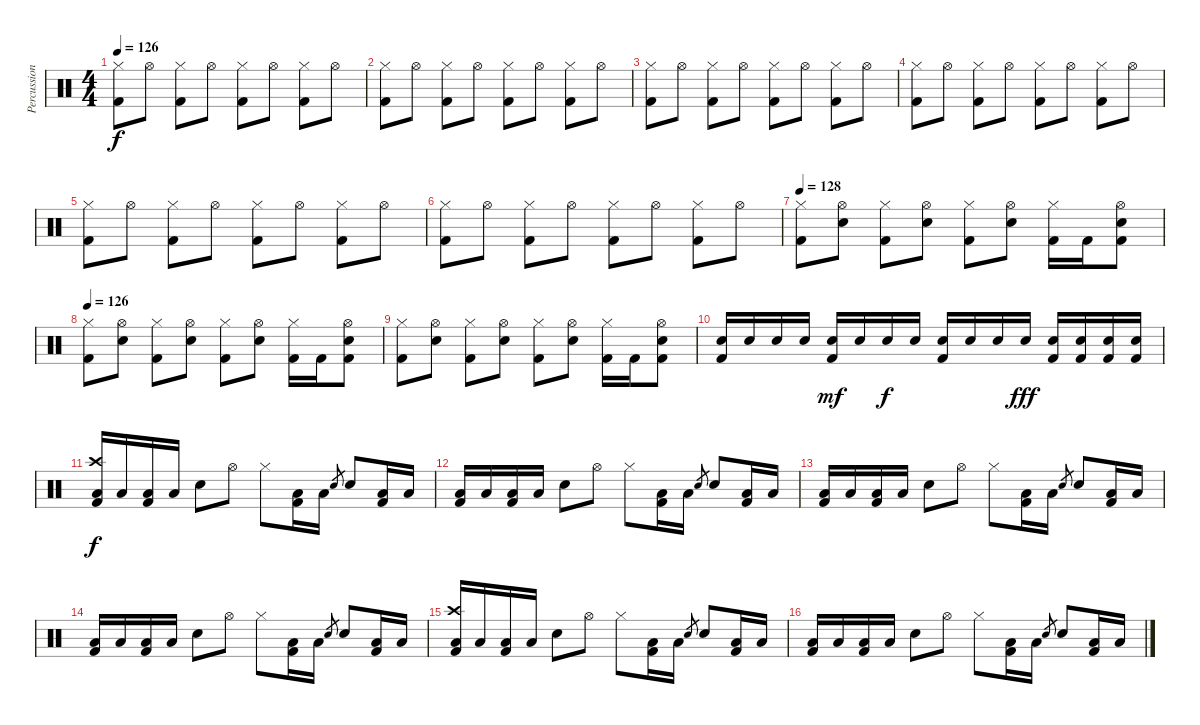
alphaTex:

\track ("Percussion" "Percussion") {instrument percussion}
\staff {score}
\articulation defaults
\ts (4 4)
\tempo 126
\clef neutral
\ks c
("Hi-Hat (closed)" "Kick (hit) 2").8{dy f} "Hi-Hat (open)".8 ("Hi-Hat (closed)" "Kick (hit) 2").8 "Hi-Hat (open)".8 ("Hi-Hat (closed)" "Kick (hit) 2").8 "Hi-Hat (open)".8 ("Hi-Hat (closed)" "Kick (hit) 2").8 "Hi-Hat (open)".8 |
("Hi-Hat (closed)" "Kick (hit) 2").8 "Hi-Hat (open)".8 ("Hi-Hat (closed)" "Kick (hit) 2").8 "Hi-Hat (open)".8 ("Hi-Hat (closed)" "Kick (hit) 2").8 "Hi-Hat (open)".8 ("Hi-Hat (closed)" "Kick (hit) 2").8 "Hi-Hat (open)".8 |
("Hi-Hat (closed)" "Kick (hit) 2").8 "Hi-Hat (open)".8 ("Hi-Hat (closed)" "Kick (hit) 2").8 "Hi-Hat (open)".8 ("Hi-Hat (closed)" "Kick (hit) 2").8 "Hi-Hat (open)".8 ("Hi-Hat (closed)" "Kick (hit) 2").8 "Hi-Hat (open)".8 |
("Hi-Hat (closed)" "Kick (hit) 2").8 "Hi-Hat (open)".8 ("Hi-Hat (closed)" "Kick (hit) 2").8 "Hi-Hat (open)".8 ("Hi-Hat (closed)" "Kick (hit) 2").8 "Hi-Hat (open)".8 ("Hi-Hat (closed)" "Kick (hit) 2").8 "Hi-Hat (open)".8 |
("Hi-Hat (closed)" "Kick (hit) 2").8 "Hi-Hat (open)".8 ("Hi-Hat (closed)" "Kick (hit) 2").8 "Hi-Hat (open)".8 ("Hi-Hat (closed)" "Kick (hit) 2").8 "Hi-Hat (open)".8 ("Hi-Hat (closed)" "Kick (hit) 2").8 "Hi-Hat (open)".8 |
("Hi-Hat (closed)" "Kick (hit) 2").8 "Hi-Hat (open)".8 ("Hi-Hat (closed)" "Kick (hit) 2").8 "Hi-Hat (open)".8 ("Hi-Hat (closed)" "Kick (hit) 2").8 "Hi-Hat (open)".8 ("Hi-Hat (closed)" "Kick (hit) 2").8 "Hi-Hat (open)".8 |
\tempo 128
("Hi-Hat (closed)" "Kick (hit) 2").8 ("Snare (hit) 2" "Hi-Hat (open)").8 ("Hi-Hat (closed)" "Kick (hit) 2").8 ("Snare (hit) 2" "Hi-Hat (open)").8 ("Hi-Hat (closed)" "Kick (hit) 2").8 ("Snare (hit) 2" "Hi-Hat (open)").8 ("Hi-Hat (closed)" "Kick (hit) 2").16 "Kick (hit) 2".16 ("Snare (hit) 2" "Hi-Hat (open)" "Kick (hit) 2").8 |
\tempo 126
("Hi-Hat (closed)" "Kick (hit) 2").8 ("Snare (hit) 2" "Hi-Hat (open)").8 ("Hi-Hat (closed)" "Kick (hit) 2").8 ("Snare (hit) 2" "Hi-Hat (open)").8 ("Hi-Hat (closed)" "Kick (hit) 2").8 ("Snare (hit) 2" "Hi-Hat (open)").8 ("Hi-Hat (closed)" "Kick (hit) 2").16 "Kick (hit) 2".16 ("Snare (hit) 2" "Hi-Hat (open)" "Kick (hit) 2").8 |
("Hi-Hat (closed)" "Kick (hit) 2").8 ("Snare (hit) 2" "Hi-Hat (open)").8 ("Hi-Hat (closed)" "Kick (hit) 2").8 ("Snare (hit) 2" "Hi-Hat (open)").8 ("Hi-Hat (closed)" "Kick (hit) 2").8 ("Snare (hit) 2" "Hi-Hat (open)").8 ("Hi-Hat (closed)" "Kick (hit) 2").16 "Kick (hit) 2".16 ("Snare (hit) 2" "Hi-Hat (open)" "Kick (hit) 2").8 |
("Snare (hit) 2" "Kick (hit) 2").16 "Snare (hit) 2".16 "Snare (hit) 2".16 "Snare (hit) 2".16 ("Snare (hit) 2" "Kick (hit) 2").16{dy mf} "Snare (hit) 2".16 "Snare (hit) 2".16{dy f} "Snare (hit) 2".16 ("Snare (hit) 2" "Kick (hit) 2").16 "Snare (hit) 2".16 "Snare (hit) 2".16 "Snare (hit) 2".16{dy fff} ("Snare (hit) 2" "Kick (hit) 2").16 ("Snare (hit) 2" "Kick (hit) 2").16 ("Snare (hit) 2" "Kick (hit) 2").16 ("Snare (hit) 2" "Kick (hit) 2").16 |
("Crash high (hit)" "Low Floor Tom (hit)" "Kick (hit) 2").16{dy f} "Low Floor Tom (hit)".16 ("Low Floor Tom (hit)" "Kick (hit) 2").16 "Low Floor Tom (hit)".16 "Snare (hit) 2".8 "Hi-Hat (open)".8 "Hi-Hat (closed)".8 ("Low Floor Tom (hit)" "Kick (hit) 2").16 "Low Floor Tom (hit)".16 "Snare (hit) 2".8{gr} "Snare (hit) 2".8 ("Low Floor Tom (hit)" "Kick (hit) 2").16 "Low Floor Tom (hit)".16 |
("Low Floor Tom (hit)" "Kick (hit) 2").16 "Low Floor Tom (hit)".16 ("Low Floor Tom (hit)" "Kick (hit) 2").16 "Low Floor Tom (hit)".16 "Snare (hit) 2".8 "Hi-Hat (open)".8 "Hi-Hat (closed)".8 ("Low Floor Tom (hit)" "Kick (hit) 2").16 "Low Floor Tom (hit)".16 "Snare (hit) 2".8{gr} "Snare (hit) 2".8 ("Low Floor Tom (hit)" "Kick (hit) 2").16 "Low Floor Tom (hit)".16 |
("Low Floor Tom (hit)" "Kick (hit) 2").16 "Low Floor Tom (hit)".16 ("Low Floor Tom (hit)" "Kick (hit) 2").16 "Low Floor Tom (hit)".16 "Snare (hit) 2".8 "Hi-Hat (open)".8 "Hi-Hat (closed)".8 ("Low Floor Tom (hit)" "Kick (hit) 2").16 "Low Floor Tom (hit)".16 "Snare (hit) 2".8{gr} "Snare (hit) 2".8 ("Low Floor Tom (hit)" "Kick (hit) 2").16 "Low Floor Tom (hit)".16 |
("Low Floor Tom (hit)" "Kick (hit) 2").16 "Low Floor Tom (hit)".16 ("Low Floor Tom (hit)" "Kick (hit) 2").16 "Low Floor Tom (hit)".16 "Snare (hit) 2".8 "Hi-Hat (open)".8 "Hi-Hat (closed)".8 ("Low Floor Tom (hit)" "Kick (hit) 2").16 "Low Floor Tom (hit)".16 "Snare (hit) 2".8{gr} "Snare (hit) 2".8 ("Low Floor Tom (hit)" "Kick (hit) 2").16 "Low Floor Tom (hit)".16 |
("Crash high (hit)" "Low Floor Tom (hit)" "Kick (hit) 2").16 "Low Floor Tom (hit)".16 ("Low Floor Tom (hit)" "Kick (hit) 2").16 "Low Floor Tom (hit)".16 "Snare (hit) 2".8 "Hi-Hat (open)".8 "Hi-Hat (closed)".8 ("Low Floor Tom (hit)" "Kick (hit) 2").16 "Low Floor Tom (hit)".16 "Snare (hit) 2".8{gr} "Snare (hit) 2".8 ("Low Floor Tom (hit)" "Kick (hit) 2").16 "Low Floor Tom (hit)".16 |
("Low Floor Tom (hit)" "Kick (hit) 2").16 "Low Floor Tom (hit)".16 ("Low Floor Tom (hit)" "Kick (hit) 2").16 "Low Floor Tom (hit)".16 "Snare (hit) 2".8 "Hi-Hat (open)".8 "Hi-Hat (closed)".8 ("Low Floor Tom (hit)" "Kick (hit) 2").16 "Low Floor Tom (hit)".16 "Snare (hit) 2".8{gr} "Snare (hit) 2".8 ("Low Floor Tom (hit)" "Kick (hit) 2").16 "Low Floor Tom (hit)".16
